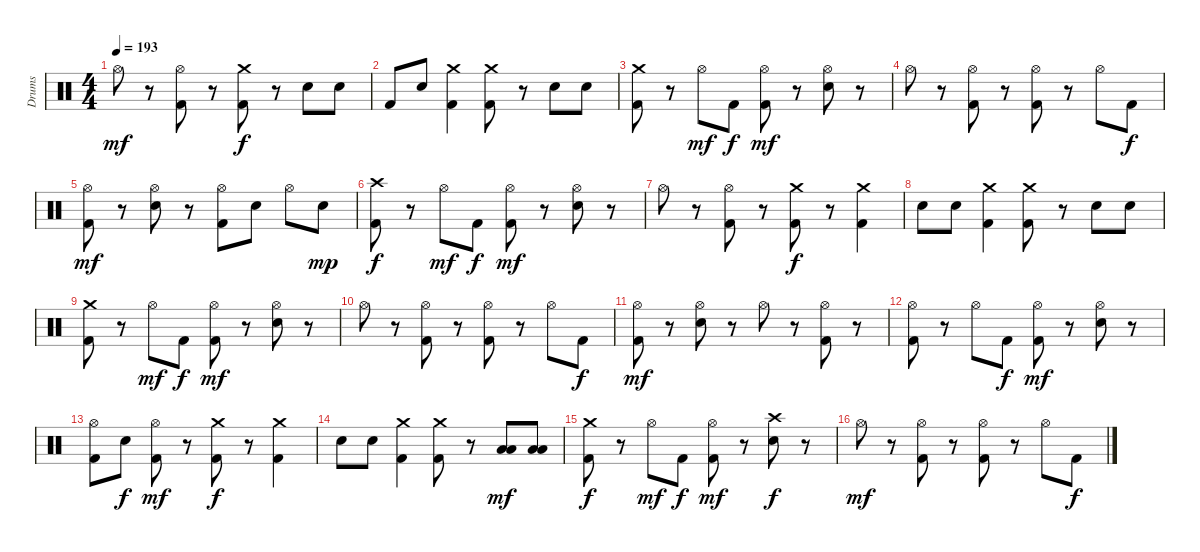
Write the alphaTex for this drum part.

\track ("Drums" "Drums") {instrument percussion}
\staff {score}
\articulation defaults
\ts (4 4)
\tempo 193
\clef neutral
\ks c "Hi-Hat (open)".8{dy mf}
r.8 ("Hi-Hat (open)" "Kick (hit) 2").8 r.8 ("Crash medium (hit)" "Kick (hit) 2").8{dy f} r.8 "Snare (hit) 2".8 "Snare (hit) 2".8 |
"Kick (hit) 2".8 "Snare (hit) 2".8 ("Crash medium (hit)" "Kick (hit) 2").4 ("Crash medium (hit)" "Kick (hit) 2").8 r.8 "Snare (hit) 2".8 "Snare (hit) 2".8 |
("Crash medium (hit)" "Kick (hit) 2").8 r.8 "Hi-Hat (open)".8{dy mf} "Kick (hit) 2".8{dy f} ("Hi-Hat (open)" "Kick (hit) 2").8{dy mf} r.8 ("Hi-Hat (open)" "Snare (hit) 2").8 r.8 |
"Hi-Hat (open)".8 r.8 ("Hi-Hat (open)" "Kick (hit) 2").8 r.8 ("Hi-Hat (open)" "Kick (hit) 2").8 r.8 "Hi-Hat (open)".8 "Kick (hit) 2".8{dy f} |
("Hi-Hat (open)" "Kick (hit) 2").8{dy mf} r.8 ("Hi-Hat (open)" "Snare (hit) 2").8 r.8 ("Hi-Hat (open)" "Kick (hit) 2").8 "Snare (hit) 2".8 "Hi-Hat (open)".8 "Snare (hit) 2".8{dy mp} |
("Crash high (hit)" "Kick (hit) 2").8{dy f} r.8 "Hi-Hat (open)".8{dy mf} "Kick (hit) 2".8{dy f} ("Hi-Hat (open)" "Kick (hit) 2").8{dy mf} r.8 ("Hi-Hat (open)" "Snare (hit) 2").8 r.8 |
"Hi-Hat (open)".8 r.8 ("Hi-Hat (open)" "Kick (hit) 2").8 r.8 ("Crash medium (hit)" "Kick (hit) 2").8{dy f} r.8 ("Crash medium (hit)" "Kick (hit) 2").4 |
"Snare (hit) 2".8 "Snare (hit) 2".8 ("Crash medium (hit)" "Kick (hit) 2").4 ("Crash medium (hit)" "Kick (hit) 2").8 r.8 "Snare (hit) 2".8 "Snare (hit) 2".8 |
("Crash medium (hit)" "Kick (hit) 2").8 r.8 "Hi-Hat (open)".8{dy mf} "Kick (hit) 2".8{dy f} ("Hi-Hat (open)" "Kick (hit) 2").8{dy mf} r.8 ("Hi-Hat (open)" "Snare (hit) 2").8 r.8 |
"Hi-Hat (open)".8 r.8 ("Hi-Hat (open)" "Kick (hit) 2").8 r.8 ("Hi-Hat (open)" "Kick (hit) 2").8 r.8 "Hi-Hat (open)".8 "Kick (hit) 2".8{dy f} |
("Hi-Hat (open)" "Kick (hit) 2").8{dy mf} r.8 ("Hi-Hat (open)" "Snare (hit) 2").8 r.8 "Hi-Hat (open)".8 r.8 ("Hi-Hat (open)" "Kick (hit) 2").8 r.8 |
("Hi-Hat (open)" "Kick (hit) 2").8 r.8 "Hi-Hat (open)".8 "Kick (hit) 2".8{dy f} ("Hi-Hat (open)" "Kick (hit) 2").8{dy mf} r.8 ("Hi-Hat (open)" "Snare (hit) 2").8 r.8 |
("Hi-Hat (open)" "Kick (hit) 2").8 "Snare (hit) 2".8{dy f} ("Hi-Hat (open)" "Kick (hit) 2").8{dy mf} r.8 ("Crash medium (hit)" "Kick (hit) 2").8{dy f} r.8 ("Crash medium (hit)" "Kick (hit) 2").4 |
"Snare (hit) 2".8 "Snare (hit) 2".8 ("Crash medium (hit)" "Kick (hit) 2").4 ("Crash medium (hit)" "Kick (hit) 2").8 r.8 ("Low Tom (hit)" "Low Floor Tom (hit)").8{dy mf} ("Low Tom (hit)" "Low Floor Tom (hit)").8 |
("Crash medium (hit)" "Kick (hit) 2").8{dy f} r.8 "Hi-Hat (open)".8{dy mf} "Kick (hit) 2".8{dy f} ("Hi-Hat (open)" "Kick (hit) 2").8{dy mf} r.8 ("Crash high (hit)" "Snare (hit) 2").8{dy f} r.8 |
"Hi-Hat (open)".8{dy mf} r.8 ("Hi-Hat (open)" "Kick (hit) 2").8 r.8 ("Hi-Hat (open)" "Kick (hit) 2").8 r.8 "Hi-Hat (open)".8 "Kick (hit) 2".8{dy f}
